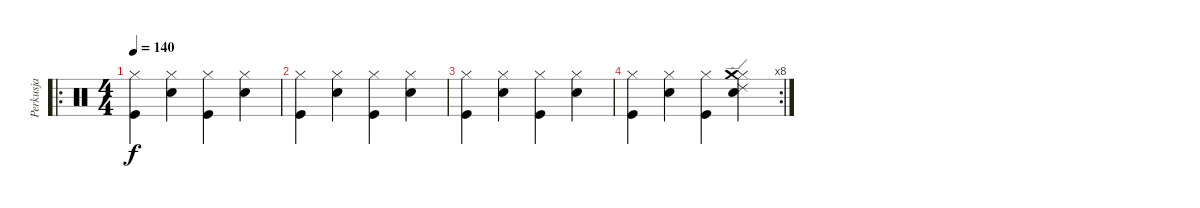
\track ("Perkusja" "Perkusja") {instrument percussion}
\staff {score}
\articulation defaults
\ro
\ts (4 4)
\tempo 140
\clef neutral
\ks c
("Kick (hit)" "Hi-Hat (closed)").4{dy f} ("Snare (hit) 2" "Hi-Hat (closed)").4 ("Kick (hit)" "Hi-Hat (closed)").4 ("Snare (hit) 2" "Hi-Hat (closed)").4 |
("Kick (hit)" "Hi-Hat (closed)").4 ("Snare (hit) 2" "Hi-Hat (closed)").4 ("Kick (hit)" "Hi-Hat (closed)").4 ("Snare (hit) 2" "Hi-Hat (closed)").4 |
("Kick (hit)" "Hi-Hat (closed)").4 ("Snare (hit) 2" "Hi-Hat (closed)").4 ("Kick (hit)" "Hi-Hat (closed)").4 ("Snare (hit) 2" "Hi-Hat (closed)").4 |
\rc 8
("Kick (hit)" "Hi-Hat (closed)").4 ("Snare (hit) 2" "Hi-Hat (closed)").4 ("Kick (hit)" "Hi-Hat (closed)").4 ("Snare (hit) 2" "Hi-Hat (closed)" "Crash medium (hit)" "Ride (edge) 2").4
